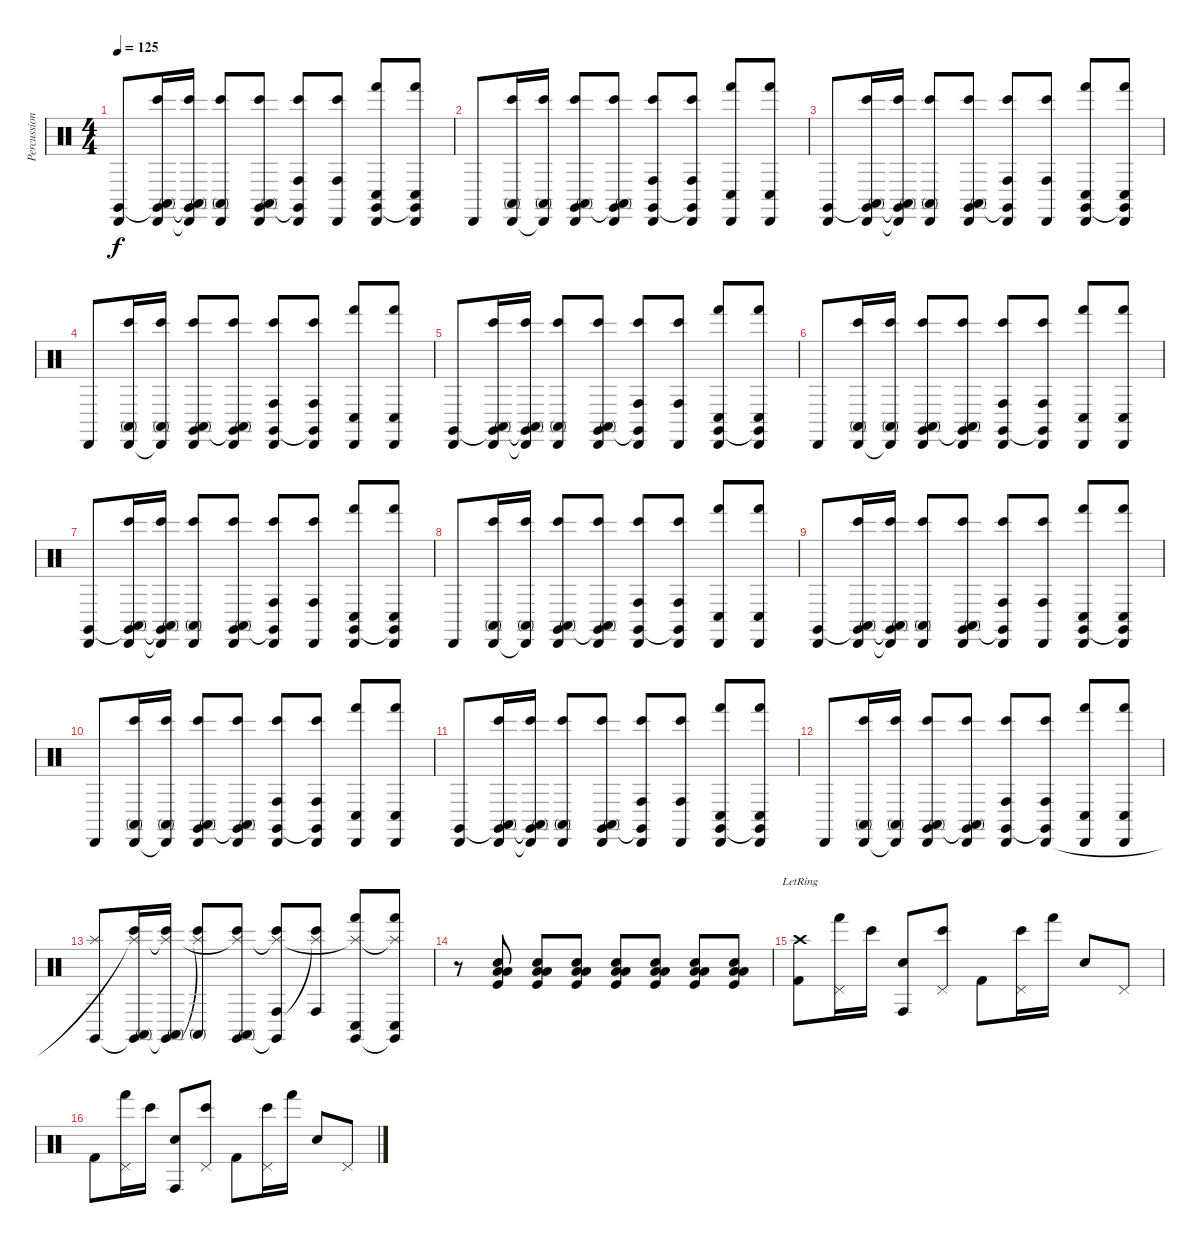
\track ("Percussion" "Percussion") {instrument percussion}
\staff {score}
\articulation defaults
\ts (4 4)
\tempo 125
\clef neutral
\ks c
("Claves (hit)" "Cabasa (hit)").8{dy f} ("Claves (hit)"{t} "Bongo High (hit)" "Conga high (mute)" "Cabasa (hit)").16 ("Claves (hit)"{t} "Bongo High (hit)" "Conga high (mute)" "Cabasa (hit)"{t}).16 ("Bongo High (hit)" "Conga high (mute)" "Cabasa (hit)").8 ("Claves (hit)" "Bongo High (hit)" "Conga high (mute)" "Cabasa (hit)").8 ("Claves (hit)"{t} "Bongo High (hit)" "Conga high (hit)" "Cabasa (hit)").8 ("Bongo High (hit)" "Conga high (hit)" "Cabasa (hit)").8 ("Claves (hit)" "Hand (hit)" "Conga low (hit)" "Cabasa (hit)").8 ("Claves (hit)"{t} "Hand (hit)" "Conga low (hit)" "Cabasa (hit)").8 |
"Cabasa (hit)".8 ("Bongo High (hit)" "Conga high (mute)" "Cabasa (hit)").16 ("Bongo High (hit)" "Conga high (mute)" "Cabasa (hit)"{t}).16 ("Claves (hit)" "Bongo High (hit)" "Conga high (mute)" "Cabasa (hit)").8 ("Claves (hit)"{t} "Bongo High (hit)" "Conga high (mute)" "Cabasa (hit)").8 ("Claves (hit)" "Bongo High (hit)" "Conga high (hit)" "Cabasa (hit)").8 ("Claves (hit)"{t} "Bongo High (hit)" "Conga high (hit)" "Cabasa (hit)").8 ("Hand (hit)" "Conga low (hit)" "Cabasa (hit)").8 ("Hand (hit)" "Conga low (hit)" "Cabasa (hit)").8 |
("Claves (hit)" "Cabasa (hit)").8 ("Claves (hit)"{t} "Bongo High (hit)" "Conga high (mute)" "Cabasa (hit)").16 ("Claves (hit)"{t} "Bongo High (hit)" "Conga high (mute)" "Cabasa (hit)"{t}).16 ("Bongo High (hit)" "Conga high (mute)" "Cabasa (hit)").8 ("Claves (hit)" "Bongo High (hit)" "Conga high (mute)" "Cabasa (hit)").8 ("Claves (hit)"{t} "Bongo High (hit)" "Conga high (hit)" "Cabasa (hit)").8 ("Bongo High (hit)" "Conga high (hit)" "Cabasa (hit)").8 ("Claves (hit)" "Hand (hit)" "Conga low (hit)" "Cabasa (hit)").8 ("Claves (hit)"{t} "Hand (hit)" "Conga low (hit)" "Cabasa (hit)").8 |
"Cabasa (hit)".8 ("Bongo High (hit)" "Conga high (mute)" "Cabasa (hit)").16 ("Bongo High (hit)" "Conga high (mute)" "Cabasa (hit)"{t}).16 ("Claves (hit)" "Bongo High (hit)" "Conga high (mute)" "Cabasa (hit)").8 ("Claves (hit)"{t} "Bongo High (hit)" "Conga high (mute)" "Cabasa (hit)").8 ("Claves (hit)" "Bongo High (hit)" "Conga high (hit)" "Cabasa (hit)").8 ("Claves (hit)"{t} "Bongo High (hit)" "Conga high (hit)" "Cabasa (hit)").8 ("Hand (hit)" "Conga low (hit)" "Cabasa (hit)").8 ("Hand (hit)" "Conga low (hit)" "Cabasa (hit)").8 |
("Claves (hit)" "Cabasa (hit)").8 ("Claves (hit)"{t} "Bongo High (hit)" "Conga high (mute)" "Cabasa (hit)").16 ("Claves (hit)"{t} "Bongo High (hit)" "Conga high (mute)" "Cabasa (hit)"{t}).16 ("Bongo High (hit)" "Conga high (mute)" "Cabasa (hit)").8 ("Claves (hit)" "Bongo High (hit)" "Conga high (mute)" "Cabasa (hit)").8 ("Claves (hit)"{t} "Bongo High (hit)" "Conga high (hit)" "Cabasa (hit)").8 ("Bongo High (hit)" "Conga high (hit)" "Cabasa (hit)").8 ("Claves (hit)" "Hand (hit)" "Conga low (hit)" "Cabasa (hit)").8 ("Claves (hit)"{t} "Hand (hit)" "Conga low (hit)" "Cabasa (hit)").8 |
"Cabasa (hit)".8 ("Bongo High (hit)" "Conga high (mute)" "Cabasa (hit)").16 ("Bongo High (hit)" "Conga high (mute)" "Cabasa (hit)"{t}).16 ("Claves (hit)" "Bongo High (hit)" "Conga high (mute)" "Cabasa (hit)").8 ("Claves (hit)"{t} "Bongo High (hit)" "Conga high (mute)" "Cabasa (hit)").8 ("Claves (hit)" "Bongo High (hit)" "Conga high (hit)" "Cabasa (hit)").8 ("Claves (hit)"{t} "Bongo High (hit)" "Conga high (hit)" "Cabasa (hit)").8 ("Hand (hit)" "Conga low (hit)" "Cabasa (hit)").8 ("Hand (hit)" "Conga low (hit)" "Cabasa (hit)").8 |
("Claves (hit)" "Cabasa (hit)").8 ("Claves (hit)"{t} "Bongo High (hit)" "Conga high (mute)" "Cabasa (hit)").16 ("Claves (hit)"{t} "Bongo High (hit)" "Conga high (mute)" "Cabasa (hit)"{t}).16 ("Bongo High (hit)" "Conga high (mute)" "Cabasa (hit)").8 ("Claves (hit)" "Bongo High (hit)" "Conga high (mute)" "Cabasa (hit)").8 ("Claves (hit)"{t} "Bongo High (hit)" "Conga high (hit)" "Cabasa (hit)").8 ("Bongo High (hit)" "Conga high (hit)" "Cabasa (hit)").8 ("Claves (hit)" "Hand (hit)" "Conga low (hit)" "Cabasa (hit)").8 ("Claves (hit)"{t} "Hand (hit)" "Conga low (hit)" "Cabasa (hit)").8 |
"Cabasa (hit)".8 ("Bongo High (hit)" "Conga high (mute)" "Cabasa (hit)").16 ("Bongo High (hit)" "Conga high (mute)" "Cabasa (hit)"{t}).16 ("Claves (hit)" "Bongo High (hit)" "Conga high (mute)" "Cabasa (hit)").8 ("Claves (hit)"{t} "Bongo High (hit)" "Conga high (mute)" "Cabasa (hit)").8 ("Claves (hit)" "Bongo High (hit)" "Conga high (hit)" "Cabasa (hit)").8 ("Claves (hit)"{t} "Bongo High (hit)" "Conga high (hit)" "Cabasa (hit)").8 ("Hand (hit)" "Conga low (hit)" "Cabasa (hit)").8 ("Hand (hit)" "Conga low (hit)" "Cabasa (hit)").8 |
("Claves (hit)" "Cabasa (hit)").8 ("Claves (hit)"{t} "Bongo High (hit)" "Conga high (mute)" "Cabasa (hit)").16 ("Claves (hit)"{t} "Bongo High (hit)" "Conga high (mute)" "Cabasa (hit)"{t}).16 ("Bongo High (hit)" "Conga high (mute)" "Cabasa (hit)").8 ("Claves (hit)" "Bongo High (hit)" "Conga high (mute)" "Cabasa (hit)").8 ("Claves (hit)"{t} "Bongo High (hit)" "Conga high (hit)" "Cabasa (hit)").8 ("Bongo High (hit)" "Conga high (hit)" "Cabasa (hit)").8 ("Claves (hit)" "Hand (hit)" "Conga low (hit)" "Cabasa (hit)").8 ("Claves (hit)"{t} "Hand (hit)" "Conga low (hit)" "Cabasa (hit)").8 |
"Cabasa (hit)".8 ("Bongo High (hit)" "Conga high (mute)" "Cabasa (hit)").16 ("Bongo High (hit)" "Conga high (mute)" "Cabasa (hit)"{t}).16 ("Claves (hit)" "Bongo High (hit)" "Conga high (mute)" "Cabasa (hit)").8 ("Claves (hit)"{t} "Bongo High (hit)" "Conga high (mute)" "Cabasa (hit)").8 ("Claves (hit)" "Bongo High (hit)" "Conga high (hit)" "Cabasa (hit)").8 ("Claves (hit)"{t} "Bongo High (hit)" "Conga high (hit)" "Cabasa (hit)").8 ("Hand (hit)" "Conga low (hit)" "Cabasa (hit)").8 ("Hand (hit)" "Conga low (hit)" "Cabasa (hit)").8 |
("Claves (hit)" "Cabasa (hit)").8 ("Claves (hit)"{t} "Bongo High (hit)" "Conga high (mute)" "Cabasa (hit)").16 ("Claves (hit)"{t} "Bongo High (hit)" "Conga high (mute)" "Cabasa (hit)"{t}).16 ("Bongo High (hit)" "Conga high (mute)" "Cabasa (hit)").8 ("Claves (hit)" "Bongo High (hit)" "Conga high (mute)" "Cabasa (hit)").8 ("Claves (hit)"{t} "Bongo High (hit)" "Conga high (hit)" "Cabasa (hit)").8 ("Bongo High (hit)" "Conga high (hit)" "Cabasa (hit)").8 ("Claves (hit)" "Hand (hit)" "Conga low (hit)" "Cabasa (hit)").8 ("Claves (hit)"{t} "Hand (hit)" "Conga low (hit)" "Cabasa (hit)").8 |
"Cabasa (hit)".8 ("Bongo High (hit)" "Conga high (mute)" "Cabasa (hit)").16 ("Bongo High (hit)" "Conga high (mute)" "Cabasa (hit)"{t}).16 ("Claves (hit)" "Bongo High (hit)" "Conga high (mute)" "Cabasa (hit)").8 ("Claves (hit)"{t} "Bongo High (hit)" "Conga high (mute)" "Cabasa (hit)").8 ("Claves (hit)" "Bongo High (hit)" "Conga high (hit)" "Cabasa (hit)").8 ("Claves (hit)"{t} "Bongo High (hit)" "Conga high (hit)" "Cabasa (hit)").8 ("Hand (hit)" "Conga low (hit)" "Cabasa (hit)").8 ("Hand (hit)" "Conga low (hit)" "Cabasa (hit)").8 |
("Claves (hit)" "Splash (hit)").8 ("Claves (hit)"{t} "Bongo High (hit)" "Conga high (mute)" "Splash (hit)"{t}).16 ("Claves (hit)"{t} "Bongo High (hit)" "Conga high (mute)" "Splash (hit)"{t}).16 ("Bongo High (hit)" "Conga high (mute)" "Splash (hit)"{t}).8 ("Claves (hit)" "Bongo High (hit)" "Conga high (mute)" "Splash (hit)"{t}).8 ("Claves (hit)"{t} "Bongo High (hit)" "Conga high (hit)" "Splash (hit)"{t}).8 ("Bongo High (hit)" "Conga high (hit)" "Splash (hit)"{t}).8 ("Claves (hit)" "Hand (hit)" "Conga low (hit)" "Splash (hit)"{t}).8 ("Claves (hit)"{t} "Hand (hit)" "Conga low (hit)" "Splash (hit)"{t}).8 |
r.8 ("Low Floor Tom (hit)" "Low Tom (hit)" "Snare (hit) 2" "Kick (hit)").8 ("Low Floor Tom (hit)" "Low Tom (hit)" "Snare (hit) 2" "Kick (hit)").8 ("Low Floor Tom (hit)" "Low Tom (hit)" "Snare (hit) 2" "Kick (hit)").8 ("Low Floor Tom (hit)" "Low Tom (hit)" "Snare (hit) 2" "Kick (hit)").8 ("Low Floor Tom (hit)" "Low Tom (hit)" "Snare (hit) 2" "Kick (hit)").8 ("Low Floor Tom (hit)" "Low Tom (hit)" "Snare (hit) 2" "Kick (hit)").8 ("Low Floor Tom (hit)" "Low Tom (hit)" "Snare (hit) 2" "Kick (hit)").8 |
("Kick (hit) 2" "Crash high (hit)"{lr}).8 ("Pedal Hi-Hat (hit)" "Hand (hit)").16 "Bongo High (hit)".16 ("Electric Snare (hit)" "Conga high (hit)").8 ("Pedal Hi-Hat (hit)" "Bongo High (hit)").8 "Kick (hit) 2".8 ("Pedal Hi-Hat (hit)" "Bongo High (hit)").16 "Hand (hit)".16 "Electric Snare (hit)".8 "Pedal Hi-Hat (hit)".8 |
"Kick (hit) 2".8 ("Pedal Hi-Hat (hit)" "Hand (hit)").16 "Bongo High (hit)".16 ("Electric Snare (hit)" "Conga high (hit)").8 ("Pedal Hi-Hat (hit)" "Bongo High (hit)").8 "Kick (hit) 2".8 ("Pedal Hi-Hat (hit)" "Bongo High (hit)").16 "Hand (hit)".16 "Electric Snare (hit)".8 "Pedal Hi-Hat (hit)".8
